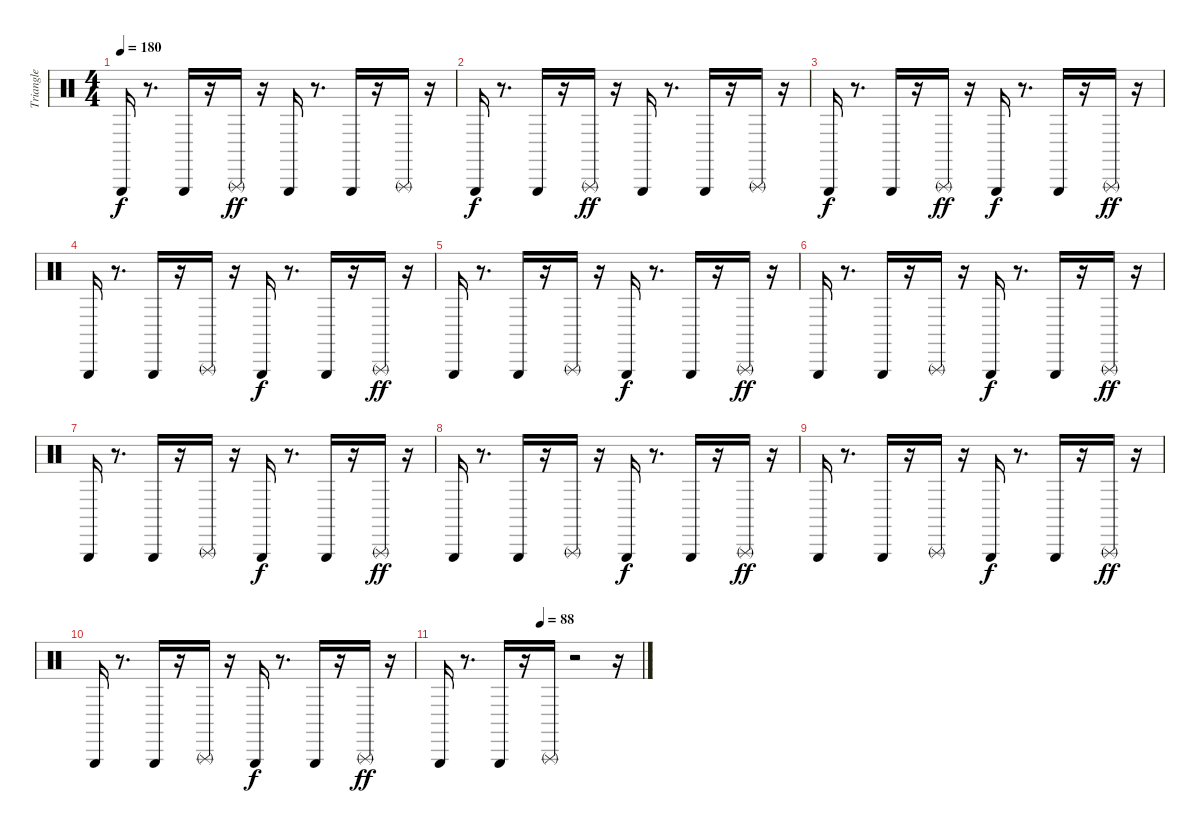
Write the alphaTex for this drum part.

\track ("Triangle" "Triangle") {instrument percussion}
\staff {score}
\articulation defaults
\ts (4 4)
\tempo 180
\clef neutral
\ks c "Triangle (hit)".16{dy f}
r.8{d} "Triangle (hit)".16 r.16 "Triangle (rnute)".16{dy ff} r.16 "Triangle (hit)".16 r.8{d} "Triangle (hit)".16 r.16 "Triangle (rnute)".16 r.16 |
"Triangle (hit)".16{dy f} r.8{d} "Triangle (hit)".16 r.16 "Triangle (rnute)".16{dy ff} r.16 "Triangle (hit)".16 r.8{d} "Triangle (hit)".16 r.16 "Triangle (rnute)".16 r.16 |
"Triangle (hit)".16{dy f} r.8{d} "Triangle (hit)".16 r.16 "Triangle (rnute)".16{dy ff} r.16 "Triangle (hit)".16{dy f} r.8{d} "Triangle (hit)".16 r.16 "Triangle (rnute)".16{dy ff} r.16 |
"Triangle (hit)".16 r.8{d} "Triangle (hit)".16 r.16 "Triangle (rnute)".16 r.16 "Triangle (hit)".16{dy f} r.8{d} "Triangle (hit)".16 r.16 "Triangle (rnute)".16{dy ff} r.16 |
"Triangle (hit)".16 r.8{d} "Triangle (hit)".16 r.16 "Triangle (rnute)".16 r.16 "Triangle (hit)".16{dy f} r.8{d} "Triangle (hit)".16 r.16 "Triangle (rnute)".16{dy ff} r.16 |
"Triangle (hit)".16 r.8{d} "Triangle (hit)".16 r.16 "Triangle (rnute)".16 r.16 "Triangle (hit)".16{dy f} r.8{d} "Triangle (hit)".16 r.16 "Triangle (rnute)".16{dy ff} r.16 |
"Triangle (hit)".16 r.8{d} "Triangle (hit)".16 r.16 "Triangle (rnute)".16 r.16 "Triangle (hit)".16{dy f} r.8{d} "Triangle (hit)".16 r.16 "Triangle (rnute)".16{dy ff} r.16 |
"Triangle (hit)".16 r.8{d} "Triangle (hit)".16 r.16 "Triangle (rnute)".16 r.16 "Triangle (hit)".16{dy f} r.8{d} "Triangle (hit)".16 r.16 "Triangle (rnute)".16{dy ff} r.16 |
"Triangle (hit)".16 r.8{d} "Triangle (hit)".16 r.16 "Triangle (rnute)".16 r.16 "Triangle (hit)".16{dy f} r.8{d} "Triangle (hit)".16 r.16 "Triangle (rnute)".16{dy ff} r.16 |
"Triangle (hit)".16 r.8{d} "Triangle (hit)".16 r.16 "Triangle (rnute)".16 r.16 "Triangle (hit)".16{dy f} r.8{d} "Triangle (hit)".16 r.16 "Triangle (rnute)".16{dy ff} r.16 |
\tempo (88 0.5)
"Triangle (hit)".16 r.8{d} "Triangle (hit)".16 r.16 "Triangle (rnute)".16 r.2 r.16
